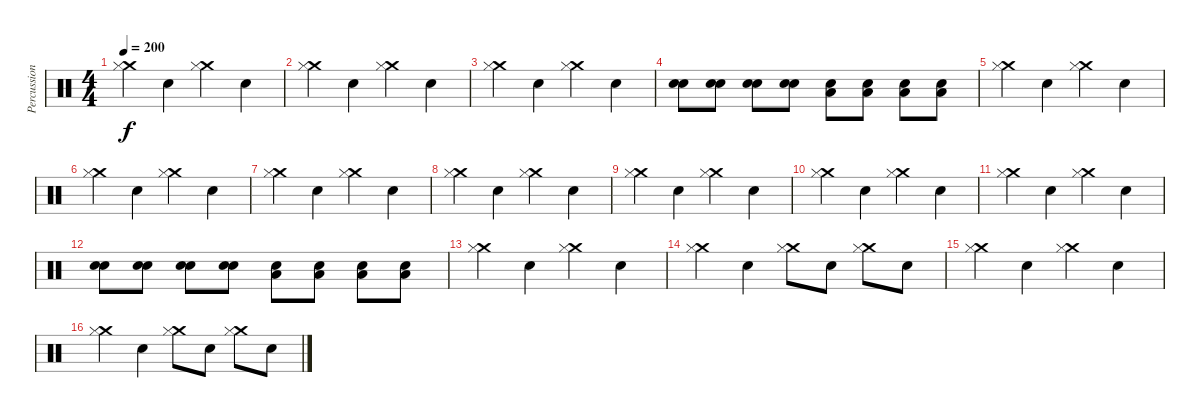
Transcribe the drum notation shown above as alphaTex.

\track ("Percussion" "Percussion") {instrument percussion}
\staff {score}
\articulation defaults
\ts (4 4)
\tempo 200
\clef neutral
\ks c
("Crash medium (hit)" "Hi-Hat (closed)").4{dy f} "Snare (hit) 2".4 ("Crash medium (hit)" "Hi-Hat (closed)").4 "Snare (hit) 2".4 |
("Crash medium (hit)" "Hi-Hat (closed)").4 "Snare (hit) 2".4 ("Crash medium (hit)" "Hi-Hat (closed)").4 "Snare (hit) 2".4 |
("Crash medium (hit)" "Hi-Hat (closed)").4 "Snare (hit) 2".4 ("Crash medium (hit)" "Hi-Hat (closed)").4 "Snare (hit) 2".4 |
("Snare (hit) 2" "Snare (hit) 2").8 ("Snare (hit) 2" "Snare (hit) 2").8 ("Snare (hit) 2" "Snare (hit) 2").8 ("Snare (hit) 2" "Snare (hit) 2").8 ("Low Floor Tom (hit)" "Snare (hit) 2").8 ("Low Floor Tom (hit)" "Snare (hit) 2").8 ("Low Floor Tom (hit)" "Snare (hit) 2").8 ("Low Floor Tom (hit)" "Snare (hit) 2").8 |
("Crash medium (hit)" "Hi-Hat (closed)").4 "Snare (hit) 2".4 ("Crash medium (hit)" "Hi-Hat (closed)").4 "Snare (hit) 2".4 |
("Crash medium (hit)" "Hi-Hat (closed)").4 "Snare (hit) 2".4 ("Crash medium (hit)" "Hi-Hat (closed)").4 "Snare (hit) 2".4 |
("Crash medium (hit)" "Hi-Hat (closed)").4 "Snare (hit) 2".4 ("Crash medium (hit)" "Hi-Hat (closed)").4 "Snare (hit) 2".4 |
("Crash medium (hit)" "Hi-Hat (closed)").4 "Snare (hit) 2".4 ("Crash medium (hit)" "Hi-Hat (closed)").4 "Snare (hit) 2".4 |
("Crash medium (hit)" "Hi-Hat (closed)").4 "Snare (hit) 2".4 ("Crash medium (hit)" "Hi-Hat (closed)").4 "Snare (hit) 2".4 |
("Crash medium (hit)" "Hi-Hat (closed)").4 "Snare (hit) 2".4 ("Crash medium (hit)" "Hi-Hat (closed)").4 "Snare (hit) 2".4 |
("Crash medium (hit)" "Hi-Hat (closed)").4 "Snare (hit) 2".4 ("Crash medium (hit)" "Hi-Hat (closed)").4 "Snare (hit) 2".4 |
("Snare (hit) 2" "Snare (hit) 2").8 ("Snare (hit) 2" "Snare (hit) 2").8 ("Snare (hit) 2" "Snare (hit) 2").8 ("Snare (hit) 2" "Snare (hit) 2").8 ("Low Floor Tom (hit)" "Snare (hit) 2").8 ("Low Floor Tom (hit)" "Snare (hit) 2").8 ("Low Floor Tom (hit)" "Snare (hit) 2").8 ("Low Floor Tom (hit)" "Snare (hit) 2").8 |
("Crash medium (hit)" "Hi-Hat (closed)").4 "Snare (hit) 2".4 ("Crash medium (hit)" "Hi-Hat (closed)").4 "Snare (hit) 2".4 |
("Crash medium (hit)" "Hi-Hat (closed)").4 "Snare (hit) 2".4 ("Crash medium (hit)" "Hi-Hat (closed)").8 "Snare (hit) 2".8 ("Crash medium (hit)" "Hi-Hat (closed)").8 "Snare (hit) 2".8 |
("Crash medium (hit)" "Hi-Hat (closed)").4 "Snare (hit) 2".4 ("Crash medium (hit)" "Hi-Hat (closed)").4 "Snare (hit) 2".4 |
("Crash medium (hit)" "Hi-Hat (closed)").4 "Snare (hit) 2".4 ("Crash medium (hit)" "Hi-Hat (closed)").8 "Snare (hit) 2".8 ("Crash medium (hit)" "Hi-Hat (closed)").8 "Snare (hit) 2".8
